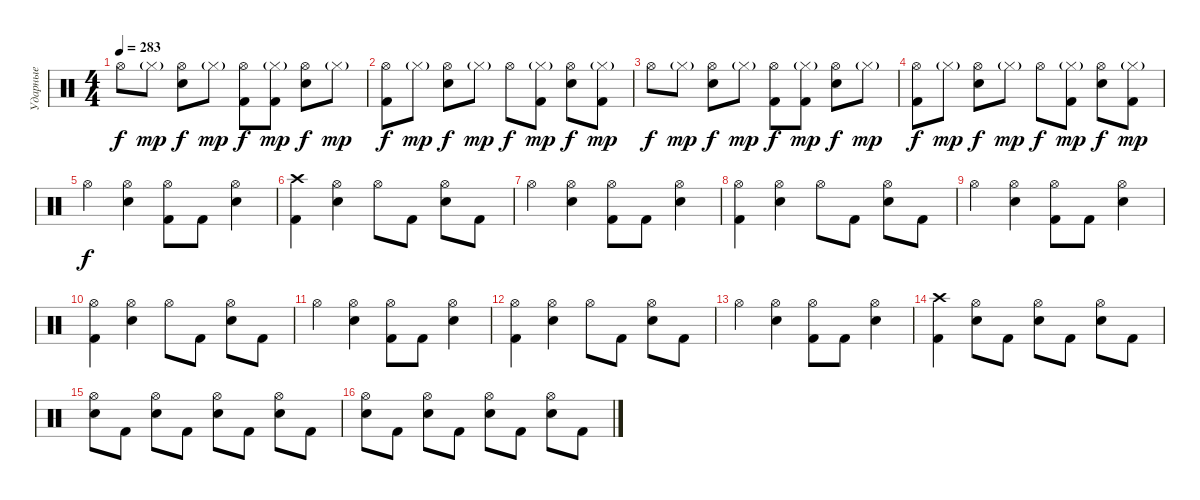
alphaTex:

\track ("Ударные" "Ударные") {instrument percussion}
\staff {score}
\articulation defaults
\ts (4 4)
\tempo 283
\clef neutral
\ks c "Hi-Hat (open)".8{dy f} "Hi-Hat (closed)"{g}.8{dy mp}
("Hi-Hat (open)" "Electric Snare (hit)").8{dy f} "Hi-Hat (closed)"{g}.8{dy mp} ("Hi-Hat (open)" "Kick (hit) 2").8{dy f} ("Hi-Hat (closed)"{g} "Kick (hit) 2").8{dy mp} ("Hi-Hat (open)" "Electric Snare (hit)").8{dy f} "Hi-Hat (closed)"{g}.8{dy mp} |
("Hi-Hat (open)" "Kick (hit) 2").8{dy f} "Hi-Hat (closed)"{g}.8{dy mp} ("Hi-Hat (open)" "Electric Snare (hit)").8{dy f} "Hi-Hat (closed)"{g}.8{dy mp} "Hi-Hat (open)".8{dy f} ("Hi-Hat (closed)"{g} "Kick (hit) 2").8{dy mp} ("Hi-Hat (open)" "Electric Snare (hit)").8{dy f} ("Hi-Hat (closed)"{g} "Kick (hit) 2").8{dy mp} |
"Hi-Hat (open)".8{dy f} "Hi-Hat (closed)"{g}.8{dy mp} ("Hi-Hat (open)" "Electric Snare (hit)").8{dy f} "Hi-Hat (closed)"{g}.8{dy mp} ("Hi-Hat (open)" "Kick (hit) 2").8{dy f} ("Hi-Hat (closed)"{g} "Kick (hit) 2").8{dy mp} ("Hi-Hat (open)" "Electric Snare (hit)").8{dy f} "Hi-Hat (closed)"{g}.8{dy mp} |
("Hi-Hat (open)" "Kick (hit) 2").8{dy f} "Hi-Hat (closed)"{g}.8{dy mp} ("Hi-Hat (open)" "Electric Snare (hit)").8{dy f} "Hi-Hat (closed)"{g}.8{dy mp} "Hi-Hat (open)".8{dy f} ("Hi-Hat (closed)"{g} "Kick (hit) 2").8{dy mp} ("Hi-Hat (open)" "Electric Snare (hit)").8{dy f} ("Hi-Hat (closed)"{g} "Kick (hit) 2").8{dy mp} |
"Hi-Hat (open)".4{dy f} ("Hi-Hat (open)" "Electric Snare (hit)").4 ("Hi-Hat (open)" "Kick (hit) 2").8 "Kick (hit) 2".8 ("Hi-Hat (open)" "Electric Snare (hit)").4 |
("Crash high (hit)" "Kick (hit) 2").4 ("Hi-Hat (open)" "Electric Snare (hit)").4 "Hi-Hat (open)".8 "Kick (hit) 2".8 ("Hi-Hat (open)" "Electric Snare (hit)").8 "Kick (hit) 2".8 |
"Hi-Hat (open)".4 ("Hi-Hat (open)" "Electric Snare (hit)").4 ("Hi-Hat (open)" "Kick (hit) 2").8 "Kick (hit) 2".8 ("Hi-Hat (open)" "Electric Snare (hit)").4 |
("Hi-Hat (open)" "Kick (hit) 2").4 ("Hi-Hat (open)" "Electric Snare (hit)").4 "Hi-Hat (open)".8 "Kick (hit) 2".8 ("Hi-Hat (open)" "Electric Snare (hit)").8 "Kick (hit) 2".8 |
"Hi-Hat (open)".4 ("Hi-Hat (open)" "Electric Snare (hit)").4 ("Hi-Hat (open)" "Kick (hit) 2").8 "Kick (hit) 2".8 ("Hi-Hat (open)" "Electric Snare (hit)").4 |
("Hi-Hat (open)" "Kick (hit) 2").4 ("Hi-Hat (open)" "Electric Snare (hit)").4 "Hi-Hat (open)".8 "Kick (hit) 2".8 ("Hi-Hat (open)" "Electric Snare (hit)").8 "Kick (hit) 2".8 |
"Hi-Hat (open)".4 ("Hi-Hat (open)" "Electric Snare (hit)").4 ("Hi-Hat (open)" "Kick (hit) 2").8 "Kick (hit) 2".8 ("Hi-Hat (open)" "Electric Snare (hit)").4 |
("Hi-Hat (open)" "Kick (hit) 2").4 ("Hi-Hat (open)" "Electric Snare (hit)").4 "Hi-Hat (open)".8 "Kick (hit) 2".8 ("Hi-Hat (open)" "Electric Snare (hit)").8 "Kick (hit) 2".8 |
"Hi-Hat (open)".4 ("Hi-Hat (open)" "Electric Snare (hit)").4 ("Hi-Hat (open)" "Kick (hit) 2").8 "Kick (hit) 2".8 ("Hi-Hat (open)" "Electric Snare (hit)").4 |
("Crash high (hit)" "Kick (hit) 2").4 ("Hi-Hat (open)" "Electric Snare (hit)").8 "Kick (hit) 2".8 ("Hi-Hat (open)" "Electric Snare (hit)").8 "Kick (hit) 2".8 ("Hi-Hat (open)" "Electric Snare (hit)").8 "Kick (hit) 2".8 |
("Hi-Hat (open)" "Electric Snare (hit)").8 "Kick (hit) 2".8 ("Hi-Hat (open)" "Electric Snare (hit)").8 "Kick (hit) 2".8 ("Hi-Hat (open)" "Electric Snare (hit)").8 "Kick (hit) 2".8 ("Hi-Hat (open)" "Electric Snare (hit)").8 "Kick (hit) 2".8 |
("Hi-Hat (open)" "Electric Snare (hit)").8 "Kick (hit) 2".8 ("Hi-Hat (open)" "Electric Snare (hit)").8 "Kick (hit) 2".8 ("Hi-Hat (open)" "Electric Snare (hit)").8 "Kick (hit) 2".8 ("Hi-Hat (open)" "Electric Snare (hit)").8 "Kick (hit) 2".8
